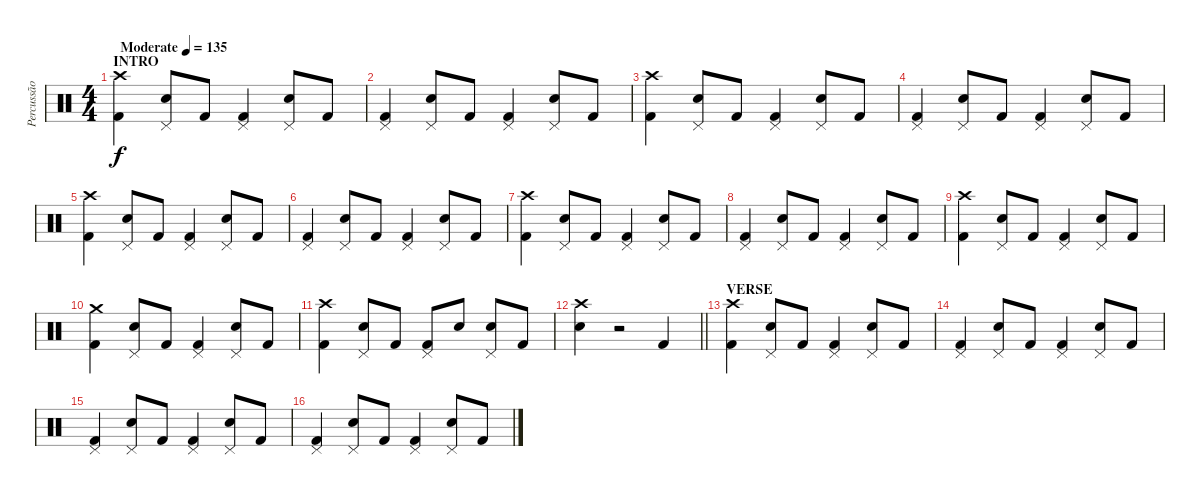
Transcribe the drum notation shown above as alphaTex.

\track ("Percussão" "Percussão") {instrument percussion}
\staff {score}
\articulation defaults
\ts (4 4)
\section ("" "INTRO")
\tempo (135 "Moderate")
\clef neutral
\ks c
("Crash high (hit)" "Kick (hit) 2").4{dy f} ("Pedal Hi-Hat (hit)" "Snare (hit) 2").8 "Kick (hit) 2".8 ("Pedal Hi-Hat (hit)" "Kick (hit) 2").4 ("Pedal Hi-Hat (hit)" "Snare (hit) 2").8 "Kick (hit) 2".8 |
("Pedal Hi-Hat (hit)" "Kick (hit) 2").4 ("Pedal Hi-Hat (hit)" "Snare (hit) 2").8 "Kick (hit) 2".8 ("Pedal Hi-Hat (hit)" "Kick (hit) 2").4 ("Pedal Hi-Hat (hit)" "Snare (hit) 2").8 "Kick (hit) 2".8 |
("Crash high (hit)" "Kick (hit) 2").4 ("Pedal Hi-Hat (hit)" "Snare (hit) 2").8 "Kick (hit) 2".8 ("Pedal Hi-Hat (hit)" "Kick (hit) 2").4 ("Pedal Hi-Hat (hit)" "Snare (hit) 2").8 "Kick (hit) 2".8 |
("Pedal Hi-Hat (hit)" "Kick (hit) 2").4 ("Pedal Hi-Hat (hit)" "Snare (hit) 2").8 "Kick (hit) 2".8 ("Pedal Hi-Hat (hit)" "Kick (hit) 2").4 ("Pedal Hi-Hat (hit)" "Snare (hit) 2").8 "Kick (hit) 2".8 |
("Crash high (hit)" "Kick (hit) 2").4 ("Pedal Hi-Hat (hit)" "Snare (hit) 2").8 "Kick (hit) 2".8 ("Pedal Hi-Hat (hit)" "Kick (hit) 2").4 ("Pedal Hi-Hat (hit)" "Snare (hit) 2").8 "Kick (hit) 2".8 |
("Pedal Hi-Hat (hit)" "Kick (hit) 2").4 ("Pedal Hi-Hat (hit)" "Snare (hit) 2").8 "Kick (hit) 2".8 ("Pedal Hi-Hat (hit)" "Kick (hit) 2").4 ("Pedal Hi-Hat (hit)" "Snare (hit) 2").8 "Kick (hit) 2".8 |
("Crash high (hit)" "Kick (hit) 2").4 ("Pedal Hi-Hat (hit)" "Snare (hit) 2").8 "Kick (hit) 2".8 ("Pedal Hi-Hat (hit)" "Kick (hit) 2").4 ("Pedal Hi-Hat (hit)" "Snare (hit) 2").8 "Kick (hit) 2".8 |
("Pedal Hi-Hat (hit)" "Kick (hit) 2").4 ("Pedal Hi-Hat (hit)" "Snare (hit) 2").8 "Kick (hit) 2".8 ("Pedal Hi-Hat (hit)" "Kick (hit) 2").4 ("Pedal Hi-Hat (hit)" "Snare (hit) 2").8 "Kick (hit) 2".8 |
("Crash high (hit)" "Kick (hit) 2").4 ("Pedal Hi-Hat (hit)" "Snare (hit) 2").8 "Kick (hit) 2".8 ("Pedal Hi-Hat (hit)" "Kick (hit) 2").4 ("Pedal Hi-Hat (hit)" "Snare (hit) 2").8 "Kick (hit) 2".8 |
("Crash medium (hit)" "Kick (hit) 2").4 ("Pedal Hi-Hat (hit)" "Snare (hit) 2").8 "Kick (hit) 2".8 ("Pedal Hi-Hat (hit)" "Kick (hit) 2").4 ("Pedal Hi-Hat (hit)" "Snare (hit) 2").8 "Kick (hit) 2".8 |
("Crash high (hit)" "Kick (hit) 2").4 ("Pedal Hi-Hat (hit)" "Snare (hit) 2").8 "Kick (hit) 2".8 ("Pedal Hi-Hat (hit)" "Kick (hit) 2").8 "Snare (hit) 2".8 ("Pedal Hi-Hat (hit)" "Snare (hit) 2").8 "Kick (hit) 2".8 |
\barLineRight lightlight
("Crash high (hit)" "Snare (hit) 2").4 r.2 "Kick (hit) 2".4 |
\section ("" "VERSE")
("Crash high (hit)" "Kick (hit) 2").4 ("Pedal Hi-Hat (hit)" "Snare (hit) 2").8 "Kick (hit) 2".8 ("Pedal Hi-Hat (hit)" "Kick (hit) 2").4 ("Pedal Hi-Hat (hit)" "Snare (hit) 2").8 "Kick (hit) 2".8 |
("Pedal Hi-Hat (hit)" "Kick (hit) 2").4 ("Pedal Hi-Hat (hit)" "Snare (hit) 2").8 "Kick (hit) 2".8 ("Pedal Hi-Hat (hit)" "Kick (hit) 2").4 ("Pedal Hi-Hat (hit)" "Snare (hit) 2").8 "Kick (hit) 2".8 |
("Pedal Hi-Hat (hit)" "Kick (hit) 2").4 ("Pedal Hi-Hat (hit)" "Snare (hit) 2").8 "Kick (hit) 2".8 ("Pedal Hi-Hat (hit)" "Kick (hit) 2").4 ("Pedal Hi-Hat (hit)" "Snare (hit) 2").8 "Kick (hit) 2".8 |
("Pedal Hi-Hat (hit)" "Kick (hit) 2").4 ("Pedal Hi-Hat (hit)" "Snare (hit) 2").8 "Kick (hit) 2".8 ("Pedal Hi-Hat (hit)" "Kick (hit) 2").4 ("Pedal Hi-Hat (hit)" "Snare (hit) 2").8 "Kick (hit) 2".8
